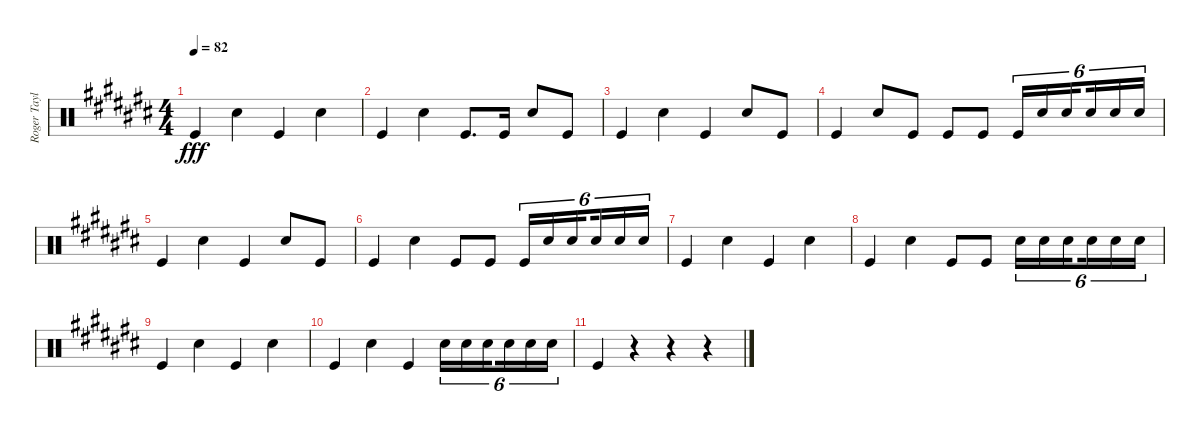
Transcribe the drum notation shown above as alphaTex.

\track ("Roger Taylor" "Roger Tayl") {instrument percussion}
\staff {score}
\articulation defaults
\ts (4 4)
\tempo 82
\clef neutral
\ks c# "Kick (hit)".4{dy fff} "Snare (hit) 2".4 "Kick (hit)".4 "Snare (hit) 2".4
|
"Kick (hit)".4 "Snare (hit) 2".4 "Kick (hit)".8{d} "Kick (hit)".16 "Snare (hit) 2".8 "Kick (hit)".8 |
"Kick (hit)".4 "Snare (hit) 2".4 "Kick (hit)".4 "Snare (hit) 2".8 "Kick (hit)".8 |
"Kick (hit)".4 "Snare (hit) 2".8 "Kick (hit)".8 "Kick (hit)".8 "Kick (hit)".8 "Kick (hit)".16{tu (6 4)} "Snare (hit) 2".16{tu (6 4)} "Snare (hit) 2".16{tu (6 4) beam splitsecondary} "Snare (hit) 2".16{tu (6 4)} "Snare (hit) 2".16{tu (6 4)} "Snare (hit) 2".16{tu (6 4)} |
"Kick (hit)".4 "Snare (hit) 2".4 "Kick (hit)".4 "Snare (hit) 2".8 "Kick (hit)".8 |
"Kick (hit)".4 "Snare (hit) 2".4 "Kick (hit)".8 "Kick (hit)".8 "Kick (hit)".16{tu (6 4)} "Snare (hit) 2".16{tu (6 4)} "Snare (hit) 2".16{tu (6 4) beam splitsecondary} "Snare (hit) 2".16{tu (6 4)} "Snare (hit) 2".16{tu (6 4)} "Snare (hit) 2".16{tu (6 4)} |
"Kick (hit)".4 "Snare (hit) 2".4 "Kick (hit)".4 "Snare (hit) 2".4 |
"Kick (hit)".4 "Snare (hit) 2".4 "Kick (hit)".8 "Kick (hit)".8 "Snare (hit) 2".16{tu (6 4)} "Snare (hit) 2".16{tu (6 4)} "Snare (hit) 2".16{tu (6 4) beam splitsecondary} "Snare (hit) 2".16{tu (6 4)} "Snare (hit) 2".16{tu (6 4)} "Snare (hit) 2".16{tu (6 4)} |
"Kick (hit)".4 "Snare (hit) 2".4 "Kick (hit)".4 "Snare (hit) 2".4 |
"Kick (hit)".4 "Snare (hit) 2".4 "Kick (hit)".4 "Snare (hit) 2".16{tu (6 4)} "Snare (hit) 2".16{tu (6 4)} "Snare (hit) 2".16{tu (6 4) beam splitsecondary} "Snare (hit) 2".16{tu (6 4)} "Snare (hit) 2".16{tu (6 4)} "Snare (hit) 2".16{tu (6 4)} |
"Kick (hit)".4 r.4 r.4 r.4
